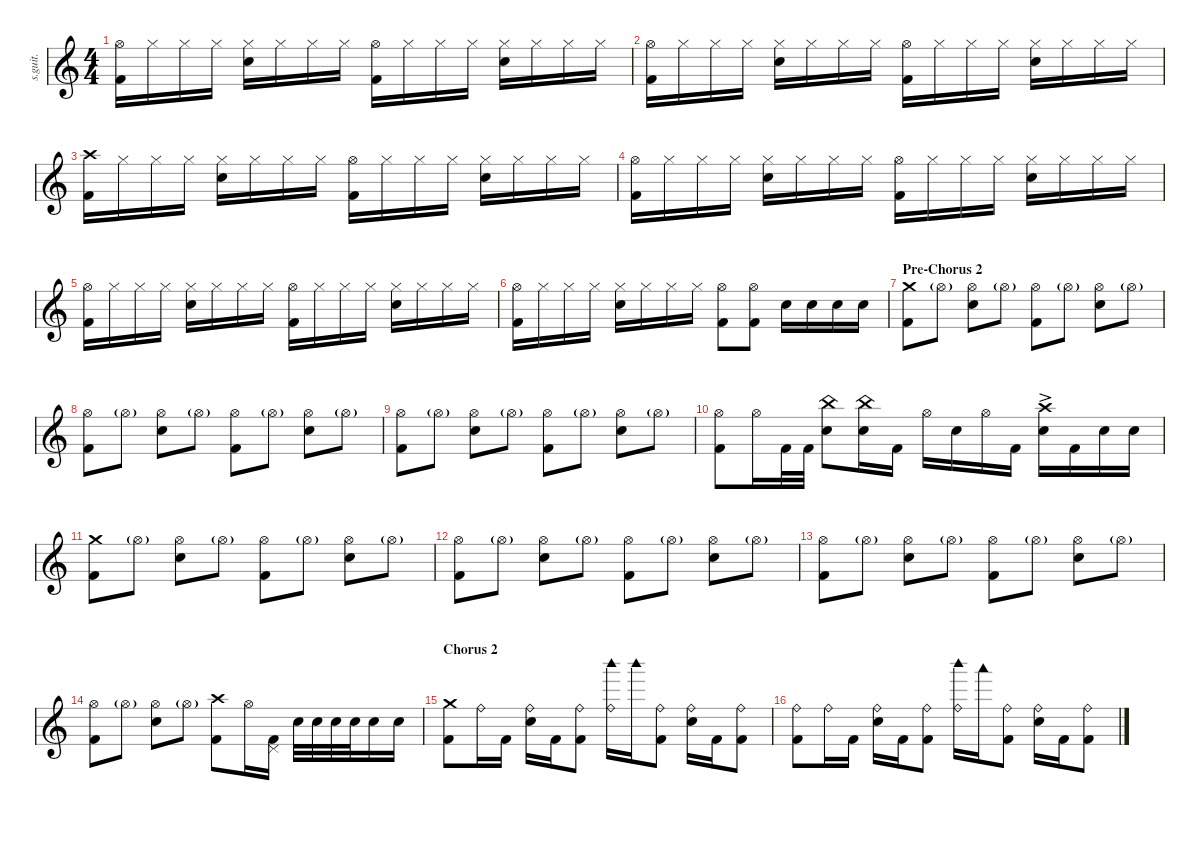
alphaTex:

\defaultSystemsLayout 4
\hideDynamics
\bracketExtendMode nobrackets
\track ("Mike Wengren" "s.guit.") {instrument percussion}
\staff {score}
\articulation defaults
\ts (4 4)
\tempo (90 hide)
\clef g2
\ks c
("Hi-Hat (open)" "Kick (hit) 2").16{lyrics (0 "") lyrics (1 "") lyrics (2 "") lyrics (3 "") lyrics (4 "") dy ff} "Hi-Hat (closed)".16{lyrics (0 "") lyrics (1 "") lyrics (2 "") lyrics (3 "") lyrics (4 "")} "Hi-Hat (closed)".16{lyrics (0 "") lyrics (1 "") lyrics (2 "") lyrics (3 "") lyrics (4 "")} "Hi-Hat (closed)".16{lyrics (0 "") lyrics (1 "") lyrics (2 "") lyrics (3 "") lyrics (4 "")} ("Hi-Hat (closed)" "Snare (hit) 2").16{lyrics (0 "") lyrics (1 "") lyrics (2 "") lyrics (3 "") lyrics (4 "")} "Hi-Hat (closed)".16{lyrics (0 "") lyrics (1 "") lyrics (2 "") lyrics (3 "") lyrics (4 "")} "Hi-Hat (closed)".16{lyrics (0 "") lyrics (1 "") lyrics (2 "") lyrics (3 "") lyrics (4 "")} "Hi-Hat (closed)".16{lyrics (0 "") lyrics (1 "") lyrics (2 "") lyrics (3 "") lyrics (4 "")} ("Hi-Hat (open)" "Kick (hit) 2").16{lyrics (0 "") lyrics (1 "") lyrics (2 "") lyrics (3 "") lyrics (4 "")} "Hi-Hat (closed)".16{lyrics (0 "") lyrics (1 "") lyrics (2 "") lyrics (3 "") lyrics (4 "")} "Hi-Hat (closed)".16{lyrics (0 "") lyrics (1 "") lyrics (2 "") lyrics (3 "") lyrics (4 "")} "Hi-Hat (closed)".16{lyrics (0 "") lyrics (1 "") lyrics (2 "") lyrics (3 "") lyrics (4 "")} ("Hi-Hat (closed)" "Snare (hit) 2").16{lyrics (0 "") lyrics (1 "") lyrics (2 "") lyrics (3 "") lyrics (4 "")} "Hi-Hat (closed)".16{lyrics (0 "") lyrics (1 "") lyrics (2 "") lyrics (3 "") lyrics (4 "")} "Hi-Hat (closed)".16{lyrics (0 "") lyrics (1 "") lyrics (2 "") lyrics (3 "") lyrics (4 "")} "Hi-Hat (closed)".16{lyrics (0 "") lyrics (1 "") lyrics (2 "") lyrics (3 "") lyrics (4 "")} |
("Hi-Hat (open)" "Kick (hit) 2").16{lyrics (0 "") lyrics (1 "") lyrics (2 "") lyrics (3 "") lyrics (4 "")} "Hi-Hat (closed)".16{lyrics (0 "") lyrics (1 "") lyrics (2 "") lyrics (3 "") lyrics (4 "")} "Hi-Hat (closed)".16{lyrics (0 "") lyrics (1 "") lyrics (2 "") lyrics (3 "") lyrics (4 "")} "Hi-Hat (closed)".16{lyrics (0 "") lyrics (1 "") lyrics (2 "") lyrics (3 "") lyrics (4 "")} ("Hi-Hat (closed)" "Snare (hit) 2").16{lyrics (0 "") lyrics (1 "") lyrics (2 "") lyrics (3 "") lyrics (4 "")} "Hi-Hat (closed)".16{lyrics (0 "") lyrics (1 "") lyrics (2 "") lyrics (3 "") lyrics (4 "")} "Hi-Hat (closed)".16{lyrics (0 "") lyrics (1 "") lyrics (2 "") lyrics (3 "") lyrics (4 "")} "Hi-Hat (closed)".16{lyrics (0 "") lyrics (1 "") lyrics (2 "") lyrics (3 "") lyrics (4 "")} ("Hi-Hat (open)" "Kick (hit) 2").16{lyrics (0 "") lyrics (1 "") lyrics (2 "") lyrics (3 "") lyrics (4 "")} "Hi-Hat (closed)".16{lyrics (0 "") lyrics (1 "") lyrics (2 "") lyrics (3 "") lyrics (4 "")} "Hi-Hat (closed)".16{lyrics (0 "") lyrics (1 "") lyrics (2 "") lyrics (3 "") lyrics (4 "")} "Hi-Hat (closed)".16{lyrics (0 "") lyrics (1 "") lyrics (2 "") lyrics (3 "") lyrics (4 "")} ("Hi-Hat (closed)" "Snare (hit) 2").16{lyrics (0 "") lyrics (1 "") lyrics (2 "") lyrics (3 "") lyrics (4 "")} "Hi-Hat (closed)".16{lyrics (0 "") lyrics (1 "") lyrics (2 "") lyrics (3 "") lyrics (4 "")} "Hi-Hat (closed)".16{lyrics (0 "") lyrics (1 "") lyrics (2 "") lyrics (3 "") lyrics (4 "")} "Hi-Hat (closed)".16{lyrics (0 "") lyrics (1 "") lyrics (2 "") lyrics (3 "") lyrics (4 "")} |
("Crash high (hit)" "Kick (hit) 2").16{lyrics (0 "") lyrics (1 "") lyrics (2 "") lyrics (3 "") lyrics (4 "")} "Hi-Hat (closed)".16{lyrics (0 "") lyrics (1 "") lyrics (2 "") lyrics (3 "") lyrics (4 "")} "Hi-Hat (closed)".16{lyrics (0 "") lyrics (1 "") lyrics (2 "") lyrics (3 "") lyrics (4 "")} "Hi-Hat (closed)".16{lyrics (0 "") lyrics (1 "") lyrics (2 "") lyrics (3 "") lyrics (4 "")} ("Hi-Hat (closed)" "Snare (hit) 2").16{lyrics (0 "") lyrics (1 "") lyrics (2 "") lyrics (3 "") lyrics (4 "")} "Hi-Hat (closed)".16{lyrics (0 "") lyrics (1 "") lyrics (2 "") lyrics (3 "") lyrics (4 "")} "Hi-Hat (closed)".16{lyrics (0 "") lyrics (1 "") lyrics (2 "") lyrics (3 "") lyrics (4 "")} "Hi-Hat (closed)".16{lyrics (0 "") lyrics (1 "") lyrics (2 "") lyrics (3 "") lyrics (4 "")} ("Hi-Hat (open)" "Kick (hit) 2").16{lyrics (0 "") lyrics (1 "") lyrics (2 "") lyrics (3 "") lyrics (4 "")} "Hi-Hat (closed)".16{lyrics (0 "") lyrics (1 "") lyrics (2 "") lyrics (3 "") lyrics (4 "")} "Hi-Hat (closed)".16{lyrics (0 "") lyrics (1 "") lyrics (2 "") lyrics (3 "") lyrics (4 "")} "Hi-Hat (closed)".16{lyrics (0 "") lyrics (1 "") lyrics (2 "") lyrics (3 "") lyrics (4 "")} ("Hi-Hat (closed)" "Snare (hit) 2").16{lyrics (0 "") lyrics (1 "") lyrics (2 "") lyrics (3 "") lyrics (4 "")} "Hi-Hat (closed)".16{lyrics (0 "") lyrics (1 "") lyrics (2 "") lyrics (3 "") lyrics (4 "")} "Hi-Hat (closed)".16{lyrics (0 "") lyrics (1 "") lyrics (2 "") lyrics (3 "") lyrics (4 "")} "Hi-Hat (closed)".16{lyrics (0 "") lyrics (1 "") lyrics (2 "") lyrics (3 "") lyrics (4 "")} |
("Hi-Hat (open)" "Kick (hit) 2").16{lyrics (0 "") lyrics (1 "") lyrics (2 "") lyrics (3 "") lyrics (4 "")} "Hi-Hat (closed)".16{lyrics (0 "") lyrics (1 "") lyrics (2 "") lyrics (3 "") lyrics (4 "")} "Hi-Hat (closed)".16{lyrics (0 "") lyrics (1 "") lyrics (2 "") lyrics (3 "") lyrics (4 "")} "Hi-Hat (closed)".16{lyrics (0 "") lyrics (1 "") lyrics (2 "") lyrics (3 "") lyrics (4 "")} ("Hi-Hat (closed)" "Snare (hit) 2").16{lyrics (0 "") lyrics (1 "") lyrics (2 "") lyrics (3 "") lyrics (4 "")} "Hi-Hat (closed)".16{lyrics (0 "") lyrics (1 "") lyrics (2 "") lyrics (3 "") lyrics (4 "")} "Hi-Hat (closed)".16{lyrics (0 "") lyrics (1 "") lyrics (2 "") lyrics (3 "") lyrics (4 "")} "Hi-Hat (closed)".16{lyrics (0 "") lyrics (1 "") lyrics (2 "") lyrics (3 "") lyrics (4 "")} ("Hi-Hat (open)" "Kick (hit) 2").16{lyrics (0 "") lyrics (1 "") lyrics (2 "") lyrics (3 "") lyrics (4 "")} "Hi-Hat (closed)".16{lyrics (0 "") lyrics (1 "") lyrics (2 "") lyrics (3 "") lyrics (4 "")} "Hi-Hat (closed)".16{lyrics (0 "") lyrics (1 "") lyrics (2 "") lyrics (3 "") lyrics (4 "")} "Hi-Hat (closed)".16{lyrics (0 "") lyrics (1 "") lyrics (2 "") lyrics (3 "") lyrics (4 "")} ("Hi-Hat (closed)" "Snare (hit) 2").16{lyrics (0 "") lyrics (1 "") lyrics (2 "") lyrics (3 "") lyrics (4 "")} "Hi-Hat (closed)".16{lyrics (0 "") lyrics (1 "") lyrics (2 "") lyrics (3 "") lyrics (4 "")} "Hi-Hat (closed)".16{lyrics (0 "") lyrics (1 "") lyrics (2 "") lyrics (3 "") lyrics (4 "")} "Hi-Hat (closed)".16{lyrics (0 "") lyrics (1 "") lyrics (2 "") lyrics (3 "") lyrics (4 "")} |
("Hi-Hat (open)" "Kick (hit) 2").16{lyrics (0 "") lyrics (1 "") lyrics (2 "") lyrics (3 "") lyrics (4 "")} "Hi-Hat (closed)".16{lyrics (0 "") lyrics (1 "") lyrics (2 "") lyrics (3 "") lyrics (4 "")} "Hi-Hat (closed)".16{lyrics (0 "") lyrics (1 "") lyrics (2 "") lyrics (3 "") lyrics (4 "")} "Hi-Hat (closed)".16{lyrics (0 "") lyrics (1 "") lyrics (2 "") lyrics (3 "") lyrics (4 "")} ("Hi-Hat (closed)" "Snare (hit) 2").16{lyrics (0 "") lyrics (1 "") lyrics (2 "") lyrics (3 "") lyrics (4 "")} "Hi-Hat (closed)".16{lyrics (0 "") lyrics (1 "") lyrics (2 "") lyrics (3 "") lyrics (4 "")} "Hi-Hat (closed)".16{lyrics (0 "") lyrics (1 "") lyrics (2 "") lyrics (3 "") lyrics (4 "")} "Hi-Hat (closed)".16{lyrics (0 "") lyrics (1 "") lyrics (2 "") lyrics (3 "") lyrics (4 "")} ("Hi-Hat (open)" "Kick (hit) 2").16{lyrics (0 "") lyrics (1 "") lyrics (2 "") lyrics (3 "") lyrics (4 "")} "Hi-Hat (closed)".16{lyrics (0 "") lyrics (1 "") lyrics (2 "") lyrics (3 "") lyrics (4 "")} "Hi-Hat (closed)".16{lyrics (0 "") lyrics (1 "") lyrics (2 "") lyrics (3 "") lyrics (4 "")} "Hi-Hat (closed)".16{lyrics (0 "") lyrics (1 "") lyrics (2 "") lyrics (3 "") lyrics (4 "")} ("Hi-Hat (closed)" "Snare (hit) 2").16{lyrics (0 "") lyrics (1 "") lyrics (2 "") lyrics (3 "") lyrics (4 "")} "Hi-Hat (closed)".16{lyrics (0 "") lyrics (1 "") lyrics (2 "") lyrics (3 "") lyrics (4 "")} "Hi-Hat (closed)".16{lyrics (0 "") lyrics (1 "") lyrics (2 "") lyrics (3 "") lyrics (4 "")} "Hi-Hat (closed)".16{lyrics (0 "") lyrics (1 "") lyrics (2 "") lyrics (3 "") lyrics (4 "")} |
("Hi-Hat (open)" "Kick (hit) 2").16{lyrics (0 "") lyrics (1 "") lyrics (2 "") lyrics (3 "") lyrics (4 "")} "Hi-Hat (closed)".16{lyrics (0 "") lyrics (1 "") lyrics (2 "") lyrics (3 "") lyrics (4 "")} "Hi-Hat (closed)".16{lyrics (0 "") lyrics (1 "") lyrics (2 "") lyrics (3 "") lyrics (4 "")} "Hi-Hat (closed)".16{lyrics (0 "") lyrics (1 "") lyrics (2 "") lyrics (3 "") lyrics (4 "")} ("Hi-Hat (closed)" "Snare (hit) 2").16{lyrics (0 "") lyrics (1 "") lyrics (2 "") lyrics (3 "") lyrics (4 "")} "Hi-Hat (closed)".16{lyrics (0 "") lyrics (1 "") lyrics (2 "") lyrics (3 "") lyrics (4 "")} "Hi-Hat (closed)".16{lyrics (0 "") lyrics (1 "") lyrics (2 "") lyrics (3 "") lyrics (4 "")} "Hi-Hat (closed)".16{lyrics (0 "") lyrics (1 "") lyrics (2 "") lyrics (3 "") lyrics (4 "")} ("Hi-Hat (open)" "Kick (hit) 2").8{lyrics (0 "") lyrics (1 "") lyrics (2 "") lyrics (3 "") lyrics (4 "")} ("Hi-Hat (open)" "Kick (hit) 2").8{lyrics (0 "") lyrics (1 "") lyrics (2 "") lyrics (3 "") lyrics (4 "")} "Snare (hit) 2".16{lyrics (0 "") lyrics (1 "") lyrics (2 "") lyrics (3 "") lyrics (4 "")} "Snare (hit) 2".16{lyrics (0 "") lyrics (1 "") lyrics (2 "") lyrics (3 "") lyrics (4 "")} "Snare (hit) 2".16{lyrics (0 "") lyrics (1 "") lyrics (2 "") lyrics (3 "") lyrics (4 "")} "Snare (hit) 2".16{lyrics (0 "") lyrics (1 "") lyrics (2 "") lyrics (3 "") lyrics (4 "")} |
\section ("" "Pre-Chorus 2")
("Kick (hit) 2" "Crash medium (hit)").8{lyrics (0 "") lyrics (1 "") lyrics (2 "") lyrics (3 "") lyrics (4 "")} "Hi-Hat (open)"{g}.8{lyrics (0 "") lyrics (1 "") lyrics (2 "") lyrics (3 "") lyrics (4 "")} ("Hi-Hat (open)" "Snare (hit) 2").8{lyrics (0 "") lyrics (1 "") lyrics (2 "") lyrics (3 "") lyrics (4 "")} "Hi-Hat (open)"{g}.8{lyrics (0 "") lyrics (1 "") lyrics (2 "") lyrics (3 "") lyrics (4 "")} ("Hi-Hat (open)" "Kick (hit) 2").8{lyrics (0 "") lyrics (1 "") lyrics (2 "") lyrics (3 "") lyrics (4 "")} "Hi-Hat (open)"{g}.8{lyrics (0 "") lyrics (1 "") lyrics (2 "") lyrics (3 "") lyrics (4 "")} ("Hi-Hat (open)" "Snare (hit) 2").8{lyrics (0 "") lyrics (1 "") lyrics (2 "") lyrics (3 "") lyrics (4 "")} "Hi-Hat (open)"{g}.8{lyrics (0 "") lyrics (1 "") lyrics (2 "") lyrics (3 "") lyrics (4 "")} |
("Hi-Hat (open)" "Kick (hit) 2").8{lyrics (0 "") lyrics (1 "") lyrics (2 "") lyrics (3 "") lyrics (4 "")} "Hi-Hat (open)"{g}.8{lyrics (0 "") lyrics (1 "") lyrics (2 "") lyrics (3 "") lyrics (4 "")} ("Hi-Hat (open)" "Snare (hit) 2").8{lyrics (0 "") lyrics (1 "") lyrics (2 "") lyrics (3 "") lyrics (4 "")} "Hi-Hat (open)"{g}.8{lyrics (0 "") lyrics (1 "") lyrics (2 "") lyrics (3 "") lyrics (4 "")} ("Hi-Hat (open)" "Kick (hit) 2").8{lyrics (0 "") lyrics (1 "") lyrics (2 "") lyrics (3 "") lyrics (4 "")} "Hi-Hat (open)"{g}.8{lyrics (0 "") lyrics (1 "") lyrics (2 "") lyrics (3 "") lyrics (4 "")} ("Hi-Hat (open)" "Snare (hit) 2").8{lyrics (0 "") lyrics (1 "") lyrics (2 "") lyrics (3 "") lyrics (4 "")} "Hi-Hat (open)"{g}.8{lyrics (0 "") lyrics (1 "") lyrics (2 "") lyrics (3 "") lyrics (4 "")} |
("Hi-Hat (open)" "Kick (hit) 2").8{lyrics (0 "") lyrics (1 "") lyrics (2 "") lyrics (3 "") lyrics (4 "")} "Hi-Hat (open)"{g}.8{lyrics (0 "") lyrics (1 "") lyrics (2 "") lyrics (3 "") lyrics (4 "")} ("Hi-Hat (open)" "Snare (hit) 2").8{lyrics (0 "") lyrics (1 "") lyrics (2 "") lyrics (3 "") lyrics (4 "")} "Hi-Hat (open)"{g}.8{lyrics (0 "") lyrics (1 "") lyrics (2 "") lyrics (3 "") lyrics (4 "")} ("Hi-Hat (open)" "Kick (hit) 2").8{lyrics (0 "") lyrics (1 "") lyrics (2 "") lyrics (3 "") lyrics (4 "")} "Hi-Hat (open)"{g}.8{lyrics (0 "") lyrics (1 "") lyrics (2 "") lyrics (3 "") lyrics (4 "")} ("Hi-Hat (open)" "Snare (hit) 2").8{lyrics (0 "") lyrics (1 "") lyrics (2 "") lyrics (3 "") lyrics (4 "")} "Hi-Hat (open)"{g}.8{lyrics (0 "") lyrics (1 "") lyrics (2 "") lyrics (3 "") lyrics (4 "")} |
("Hi-Hat (open)" "Kick (hit) 2").8{lyrics (0 "") lyrics (1 "") lyrics (2 "") lyrics (3 "") lyrics (4 "")} "Hi-Hat (open)".16{lyrics (0 "") lyrics (1 "") lyrics (2 "") lyrics (3 "") lyrics (4 "")} "Kick (hit) 2".32{lyrics (0 "") lyrics (1 "") lyrics (2 "") lyrics (3 "") lyrics (4 "")} "Kick (hit) 2".32{lyrics (0 "") lyrics (1 "") lyrics (2 "") lyrics (3 "") lyrics (4 "")} ("China (hit)" "Snare (hit) 2").8{lyrics (0 "") lyrics (1 "") lyrics (2 "") lyrics (3 "") lyrics (4 "")} ("China (hit)" "Snare (hit) 2").16{lyrics (0 "") lyrics (1 "") lyrics (2 "") lyrics (3 "") lyrics (4 "")} "Kick (hit) 2".16{lyrics (0 "") lyrics (1 "") lyrics (2 "") lyrics (3 "") lyrics (4 "")} "Hi-Hat (open)".16{lyrics (0 "") lyrics (1 "") lyrics (2 "") lyrics (3 "") lyrics (4 "")} "Snare (hit) 2".16{lyrics (0 "") lyrics (1 "") lyrics (2 "") lyrics (3 "") lyrics (4 "")} "Hi-Hat (open)".16{lyrics (0 "") lyrics (1 "") lyrics (2 "") lyrics (3 "") lyrics (4 "")} "Kick (hit) 2".16{lyrics (0 "") lyrics (1 "") lyrics (2 "") lyrics (3 "") lyrics (4 "")} ("Snare (hit) 2"{ac} "Crash high (hit)"{ac}).16{lyrics (0 "") lyrics (1 "") lyrics (2 "") lyrics (3 "") lyrics (4 "")} "Kick (hit) 2".16{lyrics (0 "") lyrics (1 "") lyrics (2 "") lyrics (3 "") lyrics (4 "")} "Snare (hit) 2".16{lyrics (0 "") lyrics (1 "") lyrics (2 "") lyrics (3 "") lyrics (4 "")} "Snare (hit) 2".16{lyrics (0 "") lyrics (1 "") lyrics (2 "") lyrics (3 "") lyrics (4 "")} |
("Kick (hit) 2" "Crash medium (hit)").8{lyrics (0 "") lyrics (1 "") lyrics (2 "") lyrics (3 "") lyrics (4 "")} "Hi-Hat (open)"{g}.8{lyrics (0 "") lyrics (1 "") lyrics (2 "") lyrics (3 "") lyrics (4 "")} ("Hi-Hat (open)" "Snare (hit) 2").8{lyrics (0 "") lyrics (1 "") lyrics (2 "") lyrics (3 "") lyrics (4 "")} "Hi-Hat (open)"{g}.8{lyrics (0 "") lyrics (1 "") lyrics (2 "") lyrics (3 "") lyrics (4 "")} ("Hi-Hat (open)" "Kick (hit) 2").8{lyrics (0 "") lyrics (1 "") lyrics (2 "") lyrics (3 "") lyrics (4 "")} "Hi-Hat (open)"{g}.8{lyrics (0 "") lyrics (1 "") lyrics (2 "") lyrics (3 "") lyrics (4 "")} ("Hi-Hat (open)" "Snare (hit) 2").8{lyrics (0 "") lyrics (1 "") lyrics (2 "") lyrics (3 "") lyrics (4 "")} "Hi-Hat (open)"{g}.8{lyrics (0 "") lyrics (1 "") lyrics (2 "") lyrics (3 "") lyrics (4 "")} |
("Hi-Hat (open)" "Kick (hit) 2").8{lyrics (0 "") lyrics (1 "") lyrics (2 "") lyrics (3 "") lyrics (4 "")} "Hi-Hat (open)"{g}.8{lyrics (0 "") lyrics (1 "") lyrics (2 "") lyrics (3 "") lyrics (4 "")} ("Hi-Hat (open)" "Snare (hit) 2").8{lyrics (0 "") lyrics (1 "") lyrics (2 "") lyrics (3 "") lyrics (4 "")} "Hi-Hat (open)"{g}.8{lyrics (0 "") lyrics (1 "") lyrics (2 "") lyrics (3 "") lyrics (4 "")} ("Hi-Hat (open)" "Kick (hit) 2").8{lyrics (0 "") lyrics (1 "") lyrics (2 "") lyrics (3 "") lyrics (4 "")} "Hi-Hat (open)"{g}.8{lyrics (0 "") lyrics (1 "") lyrics (2 "") lyrics (3 "") lyrics (4 "")} ("Hi-Hat (open)" "Snare (hit) 2").8{lyrics (0 "") lyrics (1 "") lyrics (2 "") lyrics (3 "") lyrics (4 "")} "Hi-Hat (open)"{g}.8{lyrics (0 "") lyrics (1 "") lyrics (2 "") lyrics (3 "") lyrics (4 "")} |
("Hi-Hat (open)" "Kick (hit) 2").8{lyrics (0 "") lyrics (1 "") lyrics (2 "") lyrics (3 "") lyrics (4 "")} "Hi-Hat (open)"{g}.8{lyrics (0 "") lyrics (1 "") lyrics (2 "") lyrics (3 "") lyrics (4 "")} ("Hi-Hat (open)" "Snare (hit) 2").8{lyrics (0 "") lyrics (1 "") lyrics (2 "") lyrics (3 "") lyrics (4 "")} "Hi-Hat (open)"{g}.8{lyrics (0 "") lyrics (1 "") lyrics (2 "") lyrics (3 "") lyrics (4 "")} ("Hi-Hat (open)" "Kick (hit) 2").8{lyrics (0 "") lyrics (1 "") lyrics (2 "") lyrics (3 "") lyrics (4 "")} "Hi-Hat (open)"{g}.8{lyrics (0 "") lyrics (1 "") lyrics (2 "") lyrics (3 "") lyrics (4 "")} ("Hi-Hat (open)" "Snare (hit) 2").8{lyrics (0 "") lyrics (1 "") lyrics (2 "") lyrics (3 "") lyrics (4 "")} "Hi-Hat (open)"{g}.8{lyrics (0 "") lyrics (1 "") lyrics (2 "") lyrics (3 "") lyrics (4 "")} |
("Hi-Hat (open)" "Kick (hit) 2").8{lyrics (0 "") lyrics (1 "") lyrics (2 "") lyrics (3 "") lyrics (4 "")} "Hi-Hat (open)"{g}.8{lyrics (0 "") lyrics (1 "") lyrics (2 "") lyrics (3 "") lyrics (4 "")} ("Hi-Hat (open)" "Snare (hit) 2").8{lyrics (0 "") lyrics (1 "") lyrics (2 "") lyrics (3 "") lyrics (4 "")} "Hi-Hat (open)"{g}.8{lyrics (0 "") lyrics (1 "") lyrics (2 "") lyrics (3 "") lyrics (4 "")} ("Kick (hit) 2" "Crash high (hit)").8{lyrics (0 "") lyrics (1 "") lyrics (2 "") lyrics (3 "") lyrics (4 "")} "Hi-Hat (open)".16{lyrics (0 "") lyrics (1 "") lyrics (2 "") lyrics (3 "") lyrics (4 "")} ("Kick (hit) 2" "Pedal Hi-Hat (hit)").16{lyrics (0 "") lyrics (1 "") lyrics (2 "") lyrics (3 "") lyrics (4 "")} "Snare (hit) 2".32{lyrics (0 "") lyrics (1 "") lyrics (2 "") lyrics (3 "") lyrics (4 "")} "Snare (hit) 2".32{lyrics (0 "") lyrics (1 "") lyrics (2 "") lyrics (3 "") lyrics (4 "")} "Snare (hit) 2".32{lyrics (0 "") lyrics (1 "") lyrics (2 "") lyrics (3 "") lyrics (4 "")} "Snare (hit) 2".32{lyrics (0 "") lyrics (1 "") lyrics (2 "") lyrics (3 "") lyrics (4 "")} "Snare (hit) 2".16{lyrics (0 "") lyrics (1 "") lyrics (2 "") lyrics (3 "") lyrics (4 "")} "Snare (hit) 2".16{lyrics (0 "") lyrics (1 "") lyrics (2 "") lyrics (3 "") lyrics (4 "")} |
\section ("" "Chorus 2")
("Kick (hit) 2" "Crash medium (hit)").8{lyrics (0 "") lyrics (1 "") lyrics (2 "") lyrics (3 "") lyrics (4 "")} "Ride (bell)".16{lyrics (0 "") lyrics (1 "") lyrics (2 "") lyrics (3 "") lyrics (4 "")} "Kick (hit) 2".16{lyrics (0 "") lyrics (1 "") lyrics (2 "") lyrics (3 "") lyrics (4 "")} ("Ride (bell)" "Snare (hit) 2").16{lyrics (0 "") lyrics (1 "") lyrics (2 "") lyrics (3 "") lyrics (4 "")} "Kick (hit) 2".16{lyrics (0 "") lyrics (1 "") lyrics (2 "") lyrics (3 "") lyrics (4 "")} ("Ride (bell)" "Kick (hit) 2").8{lyrics (0 "") lyrics (1 "") lyrics (2 "") lyrics (3 "") lyrics (4 "")} ("Woodblock high (hit)" "Ride (bell)").16{lyrics (0 "") lyrics (1 "") lyrics (2 "") lyrics (3 "") lyrics (4 "")} "Woodblock high (hit)".16{lyrics (0 "") lyrics (1 "") lyrics (2 "") lyrics (3 "") lyrics (4 "")} ("Ride (bell)" "Kick (hit) 2").8{lyrics (0 "") lyrics (1 "") lyrics (2 "") lyrics (3 "") lyrics (4 "")} ("Ride (bell)" "Snare (hit) 2").16{lyrics (0 "") lyrics (1 "") lyrics (2 "") lyrics (3 "") lyrics (4 "")} "Kick (hit) 2".16{lyrics (0 "") lyrics (1 "") lyrics (2 "") lyrics (3 "") lyrics (4 "")} ("Ride (bell)" "Kick (hit) 2").8{lyrics (0 "") lyrics (1 "") lyrics (2 "") lyrics (3 "") lyrics (4 "")} |
("Ride (bell)" "Kick (hit) 2").8{lyrics (0 "") lyrics (1 "") lyrics (2 "") lyrics (3 "") lyrics (4 "")} "Ride (bell)".16{lyrics (0 "") lyrics (1 "") lyrics (2 "") lyrics (3 "") lyrics (4 "")} "Kick (hit) 2".16{lyrics (0 "") lyrics (1 "") lyrics (2 "") lyrics (3 "") lyrics (4 "")} ("Ride (bell)" "Snare (hit) 2").16{lyrics (0 "") lyrics (1 "") lyrics (2 "") lyrics (3 "") lyrics (4 "")} "Kick (hit) 2".16{lyrics (0 "") lyrics (1 "") lyrics (2 "") lyrics (3 "") lyrics (4 "")} ("Ride (bell)" "Kick (hit) 2").8{lyrics (0 "") lyrics (1 "") lyrics (2 "") lyrics (3 "") lyrics (4 "")} ("Woodblock high (hit)" "Ride (bell)").16{lyrics (0 "") lyrics (1 "") lyrics (2 "") lyrics (3 "") lyrics (4 "")} "Woodblock low (hit)".16{lyrics (0 "") lyrics (1 "") lyrics (2 "") lyrics (3 "") lyrics (4 "")} ("Ride (bell)" "Kick (hit) 2").8{lyrics (0 "") lyrics (1 "") lyrics (2 "") lyrics (3 "") lyrics (4 "")} ("Ride (bell)" "Snare (hit) 2").16{lyrics (0 "") lyrics (1 "") lyrics (2 "") lyrics (3 "") lyrics (4 "")} "Kick (hit) 2".16{lyrics (0 "") lyrics (1 "") lyrics (2 "") lyrics (3 "") lyrics (4 "")} ("Ride (bell)" "Kick (hit) 2").8{lyrics (0 "") lyrics (1 "") lyrics (2 "") lyrics (3 "") lyrics (4 "")}
